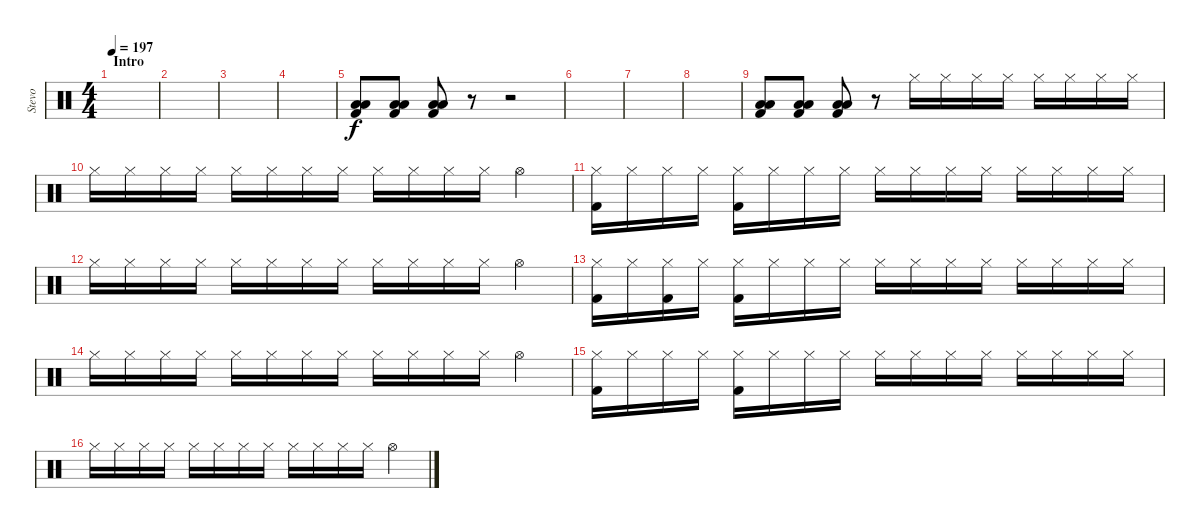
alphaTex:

\track ("Stevo" "Stevo") {instrument percussion}
\staff {score}
\articulation defaults
\ts (4 4)
\section ("" "Intro")
\tempo 197
\clef neutral
\ks c
|
|
|
|
("Low Tom (hit)" "Low Tom (hit)" "Kick (hit) 2").8 ("Low Tom (hit)" "Low Tom (hit)" "Kick (hit) 2").8 ("Low Tom (hit)" "Low Tom (hit)" "Kick (hit) 2").8 r.8 r.2 |
|
|
|
("Low Tom (hit)" "Low Tom (hit)" "Kick (hit) 2").8 ("Low Tom (hit)" "Low Tom (hit)" "Kick (hit) 2").8 ("Low Tom (hit)" "Low Tom (hit)" "Kick (hit) 2").8 r.8 "Hi-Hat (closed)".16 "Hi-Hat (closed)".16 "Hi-Hat (closed)".16 "Hi-Hat (closed)".16 "Hi-Hat (closed)".16 "Hi-Hat (closed)".16 "Hi-Hat (closed)".16 "Hi-Hat (closed)".16 |
"Hi-Hat (closed)".16 "Hi-Hat (closed)".16 "Hi-Hat (closed)".16 "Hi-Hat (closed)".16 "Hi-Hat (closed)".16 "Hi-Hat (closed)".16 "Hi-Hat (closed)".16 "Hi-Hat (closed)".16 "Hi-Hat (closed)".16 "Hi-Hat (closed)".16 "Hi-Hat (closed)".16 "Hi-Hat (closed)".16 "Hi-Hat (open)".4 |
("Hi-Hat (closed)" "Kick (hit) 2").16 "Hi-Hat (closed)".16 "Hi-Hat (closed)".16 "Hi-Hat (closed)".16 ("Hi-Hat (closed)" "Kick (hit) 2").16 "Hi-Hat (closed)".16 "Hi-Hat (closed)".16 "Hi-Hat (closed)".16 "Hi-Hat (closed)".16 "Hi-Hat (closed)".16 "Hi-Hat (closed)".16 "Hi-Hat (closed)".16 "Hi-Hat (closed)".16 "Hi-Hat (closed)".16 "Hi-Hat (closed)".16 "Hi-Hat (closed)".16 |
"Hi-Hat (closed)".16 "Hi-Hat (closed)".16 "Hi-Hat (closed)".16 "Hi-Hat (closed)".16 "Hi-Hat (closed)".16 "Hi-Hat (closed)".16 "Hi-Hat (closed)".16 "Hi-Hat (closed)".16 "Hi-Hat (closed)".16 "Hi-Hat (closed)".16 "Hi-Hat (closed)".16 "Hi-Hat (closed)".16 "Hi-Hat (open)".4 |
("Hi-Hat (closed)" "Kick (hit) 2").16 "Hi-Hat (closed)".16 ("Hi-Hat (closed)" "Kick (hit) 2").16 "Hi-Hat (closed)".16 ("Hi-Hat (closed)" "Kick (hit) 2").16 "Hi-Hat (closed)".16 "Hi-Hat (closed)".16 "Hi-Hat (closed)".16 "Hi-Hat (closed)".16 "Hi-Hat (closed)".16 "Hi-Hat (closed)".16 "Hi-Hat (closed)".16 "Hi-Hat (closed)".16 "Hi-Hat (closed)".16 "Hi-Hat (closed)".16 "Hi-Hat (closed)".16 |
"Hi-Hat (closed)".16 "Hi-Hat (closed)".16 "Hi-Hat (closed)".16 "Hi-Hat (closed)".16 "Hi-Hat (closed)".16 "Hi-Hat (closed)".16 "Hi-Hat (closed)".16 "Hi-Hat (closed)".16 "Hi-Hat (closed)".16 "Hi-Hat (closed)".16 "Hi-Hat (closed)".16 "Hi-Hat (closed)".16 "Hi-Hat (open)".4 |
("Hi-Hat (closed)" "Kick (hit) 2").16 "Hi-Hat (closed)".16 "Hi-Hat (closed)".16 "Hi-Hat (closed)".16 ("Hi-Hat (closed)" "Kick (hit) 2").16 "Hi-Hat (closed)".16 "Hi-Hat (closed)".16 "Hi-Hat (closed)".16 "Hi-Hat (closed)".16 "Hi-Hat (closed)".16 "Hi-Hat (closed)".16 "Hi-Hat (closed)".16 "Hi-Hat (closed)".16 "Hi-Hat (closed)".16 "Hi-Hat (closed)".16 "Hi-Hat (closed)".16 |
"Hi-Hat (closed)".16 "Hi-Hat (closed)".16 "Hi-Hat (closed)".16 "Hi-Hat (closed)".16 "Hi-Hat (closed)".16 "Hi-Hat (closed)".16 "Hi-Hat (closed)".16 "Hi-Hat (closed)".16 "Hi-Hat (closed)".16 "Hi-Hat (closed)".16 "Hi-Hat (closed)".16 "Hi-Hat (closed)".16 "Hi-Hat (open)".4
